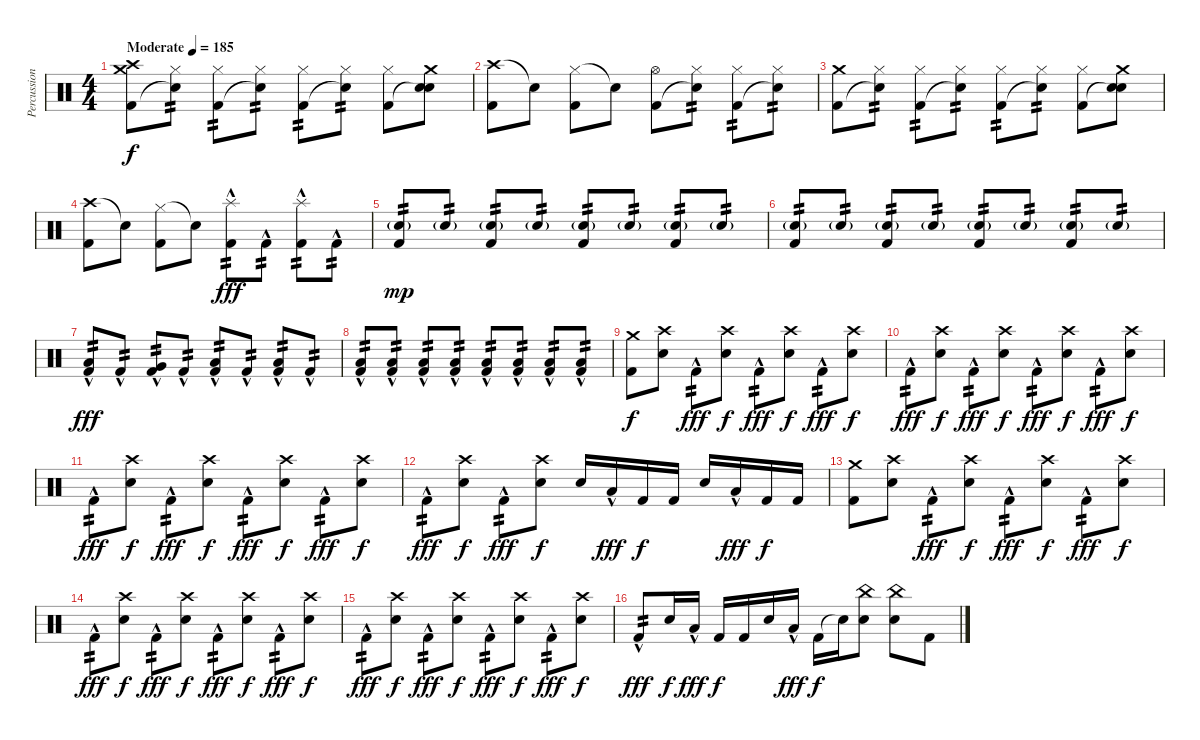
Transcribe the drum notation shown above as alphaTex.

\track ("Percussion" "Percussion") {instrument percussion}
\staff {score}
\articulation defaults
\ts (4 4)
\tempo (185 "Moderate")
\clef neutral
\ks c
("Kick (hit) 2" "Crash medium (hit)" "Crash high (hit)").8{dy f} ("Snare (hit)"{t} "Hi-Hat (closed)").8{tp 2} ("Kick (hit) 2" "Hi-Hat (closed)").8{tp 2} ("Snare (hit)"{t} "Hi-Hat (closed)").8{tp 2} ("Kick (hit) 2" "Hi-Hat (closed)").8{tp 2} ("Snare (hit)"{t} "Hi-Hat (closed)").8{tp 2} ("Kick (hit) 2" "Hi-Hat (closed)").8 ("Snare (hit)"{t} "Crash medium (hit)" "Snare (hit) 2").8 |
("Crash high (hit)" "Kick (hit) 2").8 "Snare (hit)"{t}.8 ("Hi-Hat (closed)" "Kick (hit) 2").8 "Snare (hit)"{t}.8 ("Hi-Hat (open)" "Kick (hit) 2").8 ("Hi-Hat (closed)" "Snare (hit)"{t}).8{tp 2} ("Hi-Hat (closed)" "Kick (hit) 2").8{tp 2} ("Hi-Hat (closed)" "Snare (hit)"{t}).8{tp 2} |
("Kick (hit) 2" "Crash medium (hit)").8 ("Snare (hit)"{t} "Hi-Hat (closed)").8{tp 2} ("Kick (hit) 2" "Hi-Hat (closed)").8{tp 2} ("Snare (hit)"{t} "Hi-Hat (closed)").8{tp 2} ("Kick (hit) 2" "Hi-Hat (closed)").8{tp 2} ("Snare (hit)"{t} "Hi-Hat (closed)").8{tp 2} ("Kick (hit) 2" "Hi-Hat (closed)").8 ("Snare (hit)"{t} "Crash medium (hit)" "Snare (hit) 2").8 |
("Crash high (hit)" "Kick (hit) 2").8 "Snare (hit)"{t}.8 ("Hi-Hat (closed)" "Kick (hit) 2").8 "Snare (hit)"{t}.8 ("Splash (hit)" "Kick (hit) 2"{hac}).8{tp 2 dy fff} "Kick (hit) 2"{hac}.8{tp 2} ("Splash (hit)" "Kick (hit) 2"{hac}).8{tp 2} "Kick (hit) 2"{hac}.8{tp 2} |
("Kick (hit) 2" "Snare (hit) 2"{g}).8{tp 2 dy mp} "Snare (hit) 2"{g}.8{tp 2} ("Kick (hit) 2" "Snare (hit) 2"{g}).8{tp 2} "Snare (hit) 2"{g}.8{tp 2} ("Kick (hit) 2" "Snare (hit) 2"{g}).8{tp 2} "Snare (hit) 2"{g}.8{tp 2} ("Kick (hit) 2" "Snare (hit) 2"{g}).8{tp 2} "Snare (hit) 2"{g}.8{tp 2} |
("Kick (hit) 2" "Snare (hit) 2"{g}).8{tp 2} "Snare (hit) 2"{g}.8{tp 2} ("Kick (hit) 2" "Snare (hit) 2"{g}).8{tp 2} "Snare (hit) 2"{g}.8{tp 2} ("Kick (hit) 2" "Snare (hit) 2"{g}).8{tp 2} "Snare (hit) 2"{g}.8{tp 2} ("Kick (hit) 2" "Snare (hit) 2"{g}).8{tp 2} "Snare (hit) 2"{g}.8{tp 2} |
("Low Tom (hit)"{hac} "Kick (hit) 2"{hac}).8{tp 2 dy fff} "Kick (hit) 2"{hac}.8{tp 2} ("Very Low Tom (hit)"{hac} "Kick (hit) 2"{hac}).8{tp 2} "Kick (hit) 2"{hac}.8{tp 2} ("Low Floor Tom (hit)"{hac} "Kick (hit) 2"{hac}).8{tp 2} "Kick (hit) 2"{hac}.8{tp 2} ("Low Floor Tom (hit)"{hac} "Kick (hit) 2"{hac}).8{tp 2} "Kick (hit) 2"{hac}.8{tp 2} |
("Low Floor Tom (hit)" "Kick (hit) 2"{hac}).8{tp 2} ("Low Floor Tom (hit)" "Kick (hit) 2"{hac}).8{tp 2} ("Low Floor Tom (hit)" "Kick (hit) 2"{hac}).8{tp 2} ("Low Floor Tom (hit)" "Kick (hit) 2"{hac}).8{tp 2} ("Low Floor Tom (hit)" "Kick (hit) 2"{hac}).8{tp 2} ("Low Floor Tom (hit)" "Kick (hit) 2"{hac}).8{tp 2} ("Low Floor Tom (hit)" "Kick (hit) 2"{hac}).8{tp 2} ("Low Floor Tom (hit)" "Kick (hit) 2"{hac}).8{tp 2} |
("Crash medium (hit)" "Kick (hit) 2").8{dy f} ("Crash high (hit)" "Snare (hit) 2").8 "Kick (hit) 2"{hac}.8{tp 2 dy fff} ("Crash high (hit)" "Snare (hit) 2").8{dy f} "Kick (hit) 2"{hac}.8{tp 2 dy fff} ("Crash high (hit)" "Snare (hit) 2").8{dy f} "Kick (hit) 2"{hac}.8{tp 2 dy fff} ("Crash high (hit)" "Snare (hit) 2").8{dy f} |
"Kick (hit) 2"{hac}.8{tp 2 dy fff} ("Crash high (hit)" "Snare (hit) 2").8{dy f} "Kick (hit) 2"{hac}.8{tp 2 dy fff} ("Crash high (hit)" "Snare (hit) 2").8{dy f} "Kick (hit) 2"{hac}.8{tp 2 dy fff} ("Crash high (hit)" "Snare (hit) 2").8{dy f} "Kick (hit) 2"{hac}.8{tp 2 dy fff} ("Crash high (hit)" "Snare (hit) 2").8{dy f} |
"Kick (hit) 2"{hac}.8{tp 2 dy fff} ("Crash high (hit)" "Snare (hit) 2").8{dy f} "Kick (hit) 2"{hac}.8{tp 2 dy fff} ("Crash high (hit)" "Snare (hit) 2").8{dy f} "Kick (hit) 2"{hac}.8{tp 2 dy fff} ("Crash high (hit)" "Snare (hit) 2").8{dy f} "Kick (hit) 2"{hac}.8{tp 2 dy fff} ("Crash high (hit)" "Snare (hit) 2").8{dy f} |
"Kick (hit) 2"{hac}.8{tp 2 dy fff} ("Crash high (hit)" "Snare (hit) 2").8{dy f} "Kick (hit) 2"{hac}.8{tp 2 dy fff} ("Crash high (hit)" "Snare (hit) 2").8{dy f} "Snare (hit) 2".16 "Low Tom (hit)"{hac}.16{dy fff} "Kick (hit) 2".16{dy f} "Kick (hit) 2".16 "Snare (hit) 2".16 "Low Tom (hit)"{hac}.16{dy fff} "Kick (hit) 2".16{dy f} "Kick (hit) 2".16 |
("Crash medium (hit)" "Kick (hit) 2").8 ("Crash high (hit)" "Snare (hit) 2").8 "Kick (hit) 2"{hac}.8{tp 2 dy fff} ("Crash high (hit)" "Snare (hit) 2").8{dy f} "Kick (hit) 2"{hac}.8{tp 2 dy fff} ("Crash high (hit)" "Snare (hit) 2").8{dy f} "Kick (hit) 2"{hac}.8{tp 2 dy fff} ("Crash high (hit)" "Snare (hit) 2").8{dy f} |
"Kick (hit) 2"{hac}.8{tp 2 dy fff} ("Crash high (hit)" "Snare (hit) 2").8{dy f} "Kick (hit) 2"{hac}.8{tp 2 dy fff} ("Crash high (hit)" "Snare (hit) 2").8{dy f} "Kick (hit) 2"{hac}.8{tp 2 dy fff} ("Crash high (hit)" "Snare (hit) 2").8{dy f} "Kick (hit) 2"{hac}.8{tp 2 dy fff} ("Crash high (hit)" "Snare (hit) 2").8{dy f} |
"Kick (hit) 2"{hac}.8{tp 2 dy fff} ("Crash high (hit)" "Snare (hit) 2").8{dy f} "Kick (hit) 2"{hac}.8{tp 2 dy fff} ("Crash high (hit)" "Snare (hit) 2").8{dy f} "Kick (hit) 2"{hac}.8{tp 2 dy fff} ("Crash high (hit)" "Snare (hit) 2").8{dy f} "Kick (hit) 2"{hac}.8{tp 2 dy fff} ("Crash high (hit)" "Snare (hit) 2").8{dy f} |
"Kick (hit) 2"{hac}.8{tp 2 dy fff} "Snare (hit) 2".16{dy f} "Low Tom (hit)"{hac}.16{dy fff} "Kick (hit) 2".16{dy f} "Kick (hit) 2".16 "Snare (hit) 2".16 "Low Tom (hit)"{hac}.16{dy fff} "Kick (hit) 2".16{dy f} "Snare (hit)"{t}.16 ("China (hit)" "Snare (hit) 2").8 ("China (hit)" "Snare (hit) 2").8 "Kick (hit) 2".8
